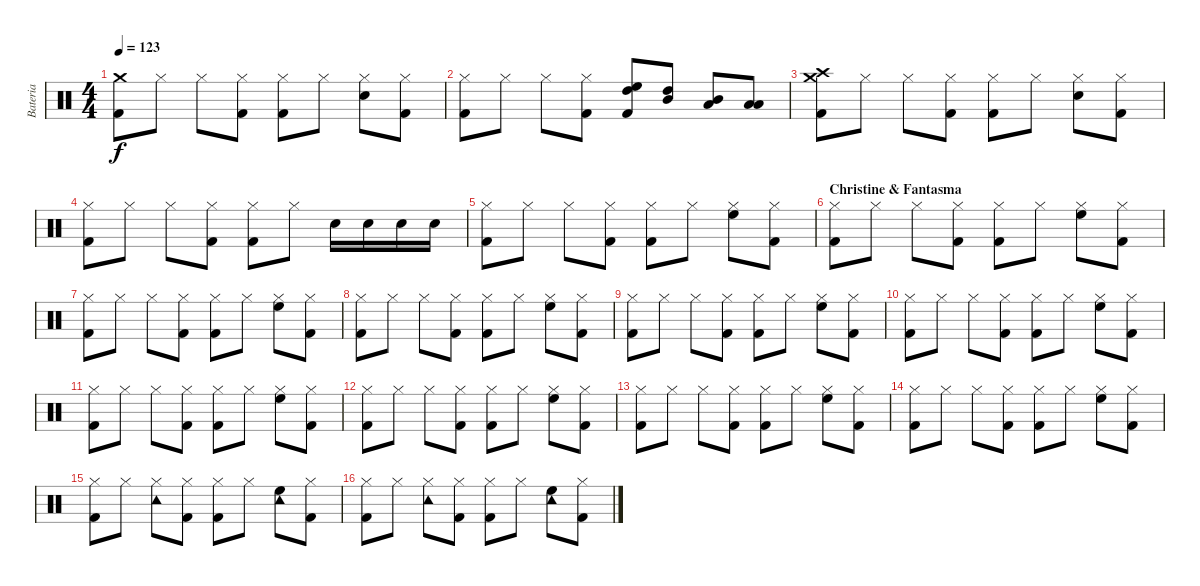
\track ("Bateria" "Bateria") {instrument percussion}
\staff {score}
\articulation defaults
\ts (4 4)
\tempo 123
\clef neutral
\ks c
("Crash medium (hit)" "Kick (hit) 2").8{dy f} "Hi-Hat (closed)".8 "Hi-Hat (closed)".8 ("Hi-Hat (closed)" "Kick (hit) 2").8 ("Hi-Hat (closed)" "Kick (hit) 2").8 "Hi-Hat (closed)".8 ("Hi-Hat (closed)" "Snare (hit) 2").8 ("Hi-Hat (closed)" "Kick (hit) 2").8 |
("Hi-Hat (closed)" "Kick (hit) 2").8 "Hi-Hat (closed)".8 "Hi-Hat (closed)".8 ("Hi-Hat (closed)" "Kick (hit) 2").8 ("High Floor Tom (hit)" "High Tom (hit)" "Kick (hit) 2").8 ("High Tom (hit)" "Mid Tom (hit)").8 ("Mid Tom (hit)" "Low Tom (hit)").8 ("Low Tom (hit)" "Low Tom (hit)").8 |
("Crash medium (hit)" "Crash high (hit)" "Kick (hit) 2").8 "Hi-Hat (closed)".8 "Hi-Hat (closed)".8 ("Hi-Hat (closed)" "Kick (hit) 2").8 ("Hi-Hat (closed)" "Kick (hit) 2").8 "Hi-Hat (closed)".8 ("Hi-Hat (closed)" "Snare (hit) 2").8 ("Hi-Hat (closed)" "Kick (hit) 2").8 |
("Hi-Hat (closed)" "Kick (hit) 2").8 "Hi-Hat (closed)".8 "Hi-Hat (closed)".8 ("Hi-Hat (closed)" "Kick (hit) 2").8 ("Hi-Hat (closed)" "Kick (hit) 2").8 "Hi-Hat (closed)".8 "Snare (hit) 2".16 "Snare (hit) 2".16 "Snare (hit) 2".16 "Snare (hit) 2".16 |
("Hi-Hat (closed)" "Kick (hit) 2").8 "Hi-Hat (closed)".8 "Hi-Hat (closed)".8 ("Hi-Hat (closed)" "Kick (hit) 2").8 ("Hi-Hat (closed)" "Kick (hit) 2").8 "Hi-Hat (closed)".8 ("Hi-Hat (closed)" "High Floor Tom (hit)").8 ("Hi-Hat (closed)" "Kick (hit) 2").8 |
\section ("" "Christine & Fantasma")
("Hi-Hat (closed)" "Kick (hit) 2").8 "Hi-Hat (closed)".8 "Hi-Hat (closed)".8 ("Hi-Hat (closed)" "Kick (hit) 2").8 ("Hi-Hat (closed)" "Kick (hit) 2").8 "Hi-Hat (closed)".8 ("Hi-Hat (closed)" "High Floor Tom (hit)").8 ("Hi-Hat (closed)" "Kick (hit) 2").8 |
("Hi-Hat (closed)" "Kick (hit) 2").8 "Hi-Hat (closed)".8 "Hi-Hat (closed)".8 ("Hi-Hat (closed)" "Kick (hit) 2").8 ("Hi-Hat (closed)" "Kick (hit) 2").8 "Hi-Hat (closed)".8 ("Hi-Hat (closed)" "High Floor Tom (hit)").8 ("Hi-Hat (closed)" "Kick (hit) 2").8 |
("Hi-Hat (closed)" "Kick (hit) 2").8 "Hi-Hat (closed)".8 "Hi-Hat (closed)".8 ("Hi-Hat (closed)" "Kick (hit) 2").8 ("Hi-Hat (closed)" "Kick (hit) 2").8 "Hi-Hat (closed)".8 ("Hi-Hat (closed)" "High Floor Tom (hit)").8 ("Hi-Hat (closed)" "Kick (hit) 2").8 |
("Hi-Hat (closed)" "Kick (hit) 2").8 "Hi-Hat (closed)".8 "Hi-Hat (closed)".8 ("Hi-Hat (closed)" "Kick (hit) 2").8 ("Hi-Hat (closed)" "Kick (hit) 2").8 "Hi-Hat (closed)".8 ("Hi-Hat (closed)" "High Floor Tom (hit)").8 ("Hi-Hat (closed)" "Kick (hit) 2").8 |
("Hi-Hat (closed)" "Kick (hit) 2").8 "Hi-Hat (closed)".8 "Hi-Hat (closed)".8 ("Hi-Hat (closed)" "Kick (hit) 2").8 ("Hi-Hat (closed)" "Kick (hit) 2").8 "Hi-Hat (closed)".8 ("Hi-Hat (closed)" "High Floor Tom (hit)").8 ("Hi-Hat (closed)" "Kick (hit) 2").8 |
("Hi-Hat (closed)" "Kick (hit) 2").8 "Hi-Hat (closed)".8 "Hi-Hat (closed)".8 ("Hi-Hat (closed)" "Kick (hit) 2").8 ("Hi-Hat (closed)" "Kick (hit) 2").8 "Hi-Hat (closed)".8 ("Hi-Hat (closed)" "High Floor Tom (hit)").8 ("Hi-Hat (closed)" "Kick (hit) 2").8 |
("Hi-Hat (closed)" "Kick (hit) 2").8 "Hi-Hat (closed)".8 "Hi-Hat (closed)".8 ("Hi-Hat (closed)" "Kick (hit) 2").8 ("Hi-Hat (closed)" "Kick (hit) 2").8 "Hi-Hat (closed)".8 ("Hi-Hat (closed)" "High Floor Tom (hit)").8 ("Hi-Hat (closed)" "Kick (hit) 2").8 |
("Hi-Hat (closed)" "Kick (hit) 2").8 "Hi-Hat (closed)".8 "Hi-Hat (closed)".8 ("Hi-Hat (closed)" "Kick (hit) 2").8 ("Hi-Hat (closed)" "Kick (hit) 2").8 "Hi-Hat (closed)".8 ("Hi-Hat (closed)" "High Floor Tom (hit)").8 ("Hi-Hat (closed)" "Kick (hit) 2").8 |
("Hi-Hat (closed)" "Kick (hit) 2").8 "Hi-Hat (closed)".8 "Hi-Hat (closed)".8 ("Hi-Hat (closed)" "Kick (hit) 2").8 ("Hi-Hat (closed)" "Kick (hit) 2").8 "Hi-Hat (closed)".8 ("Hi-Hat (closed)" "High Floor Tom (hit)").8 ("Hi-Hat (closed)" "Kick (hit) 2").8 |
("Hi-Hat (closed)" "Kick (hit) 2").8 "Hi-Hat (closed)".8 ("Hi-Hat (closed)" "Tambourine (hit)").8 ("Hi-Hat (closed)" "Kick (hit) 2").8 ("Hi-Hat (closed)" "Kick (hit) 2").8 "Hi-Hat (closed)".8 ("High Floor Tom (hit)" "Tambourine (hit)").8 ("Hi-Hat (closed)" "Kick (hit) 2").8 |
("Hi-Hat (closed)" "Kick (hit) 2").8 "Hi-Hat (closed)".8 ("Hi-Hat (closed)" "Tambourine (hit)").8 ("Hi-Hat (closed)" "Kick (hit) 2").8 ("Hi-Hat (closed)" "Kick (hit) 2").8 "Hi-Hat (closed)".8 ("High Floor Tom (hit)" "Tambourine (hit)").8 ("Hi-Hat (closed)" "Kick (hit) 2").8
